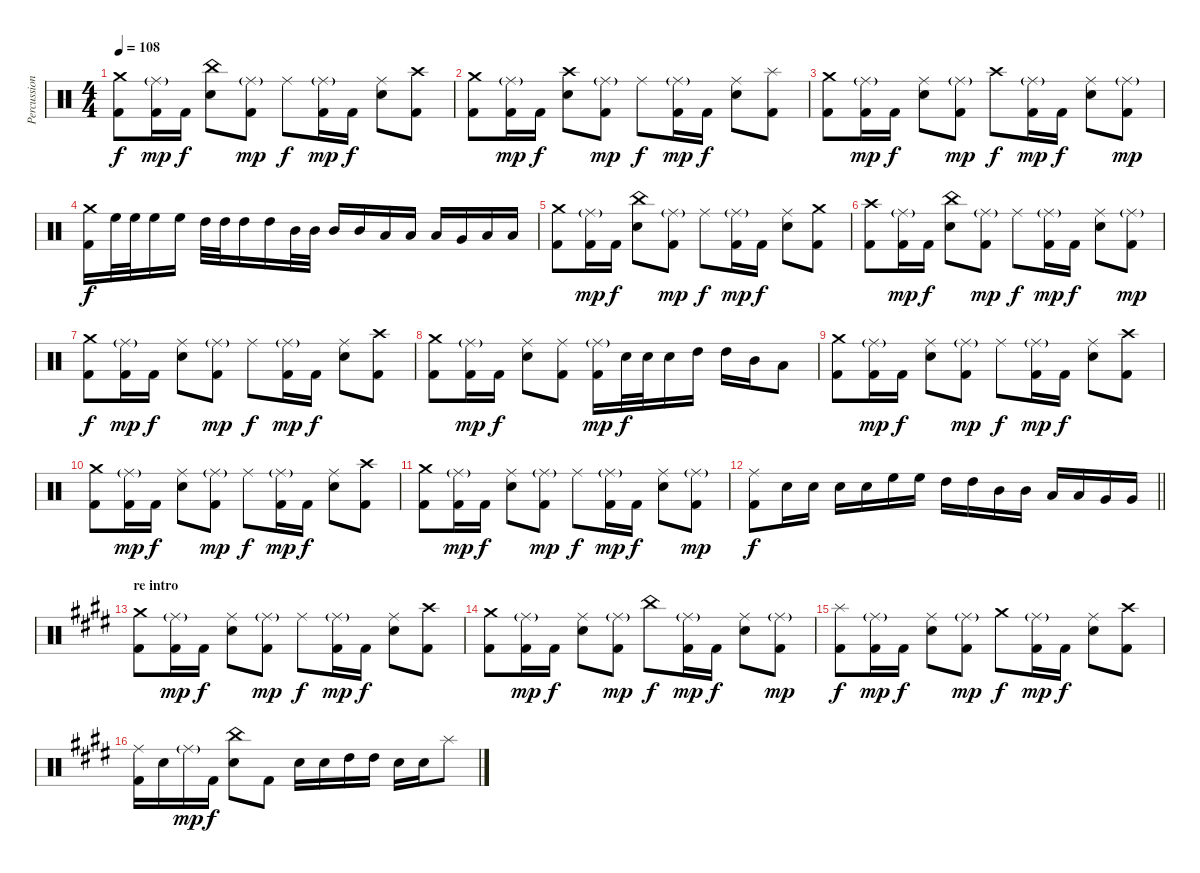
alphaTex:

\track ("Percussion" "Percussion") {instrument percussion}
\staff {score}
\articulation defaults
\ts (4 4)
\tempo 108
\clef neutral
\ks c
("Crash medium (hit)" "Kick (hit) 2").8{dy f} ("Ride (middle)"{g} "Kick (hit) 2").16{dy mp} "Kick (hit) 2".16{dy f} ("China (hit)" "Electric Snare (hit)").8 ("Ride (middle)"{g} "Kick (hit) 2").8{dy mp} "Ride (middle)".8{dy f} ("Ride (middle)"{g} "Kick (hit) 2").16{dy mp} "Kick (hit) 2".16{dy f} ("Ride (middle)" "Electric Snare (hit)").8 ("Crash high (hit)" "Kick (hit) 2").8 |
("Crash medium (hit)" "Kick (hit) 2").8 ("Ride (middle)"{g} "Kick (hit) 2").16{dy mp} "Kick (hit) 2".16{dy f} ("Crash high (hit)" "Electric Snare (hit)").8 ("Ride (middle)"{g} "Kick (hit) 2").8{dy mp} "Ride (middle)".8{dy f} ("Ride (middle)"{g} "Kick (hit) 2").16{dy mp} "Kick (hit) 2".16{dy f} ("Ride (middle)" "Electric Snare (hit)").8 ("Splash (hit)" "Kick (hit) 2").8 |
("Crash medium (hit)" "Kick (hit) 2").8 ("Ride (middle)"{g} "Kick (hit) 2").16{dy mp} "Kick (hit) 2".16{dy f} ("Ride (middle)" "Electric Snare (hit)").8 ("Ride (middle)"{g} "Kick (hit) 2").8{dy mp} "Crash high (hit)".8{dy f} ("Ride (middle)"{g} "Kick (hit) 2").16{dy mp} "Kick (hit) 2".16{dy f} ("Ride (middle)" "Electric Snare (hit)").8 ("Ride (middle)"{g} "Kick (hit) 2").8{dy mp} |
("Crash medium (hit)" "Kick (hit) 2").16{dy f} "High Floor Tom (hit)".32 "High Floor Tom (hit)".32 "High Floor Tom (hit)".16 "High Floor Tom (hit)".16 "High Tom (hit)".32 "High Tom (hit)".32 "High Tom (hit)".16 "High Tom (hit)".16 "Mid Tom (hit)".32 "Mid Tom (hit)".32 "Mid Tom (hit)".16 "Mid Tom (hit)".16 "Low Tom (hit)".16 "Low Tom (hit)".16 "Low Tom (hit)".16 "Very Low Tom (hit)".16 "Low Floor Tom (hit)".16 "Low Floor Tom (hit)".16 |
("Crash medium (hit)" "Kick (hit) 2").8 ("Ride (middle)"{g} "Kick (hit) 2").16{dy mp} "Kick (hit) 2".16{dy f} ("China (hit)" "Electric Snare (hit)").8 ("Ride (middle)"{g} "Kick (hit) 2").8{dy mp} "Ride (middle)".8{dy f} ("Ride (middle)"{g} "Kick (hit) 2").16{dy mp} "Kick (hit) 2".16{dy f} ("Ride (middle)" "Electric Snare (hit)").8 ("Crash medium (hit)" "Kick (hit) 2").8 |
("Crash high (hit)" "Kick (hit) 2").8 ("Ride (middle)"{g} "Kick (hit) 2").16{dy mp} "Kick (hit) 2".16{dy f} ("China (hit)" "Electric Snare (hit)").8 ("Ride (middle)"{g} "Kick (hit) 2").8{dy mp} "Ride (middle)".8{dy f} ("Ride (middle)"{g} "Kick (hit) 2").16{dy mp} "Kick (hit) 2".16{dy f} ("Ride (middle)" "Electric Snare (hit)").8 ("Ride (middle)"{g} "Kick (hit) 2").8{dy mp} |
("Crash medium (hit)" "Kick (hit) 2").8{dy f} ("Ride (middle)"{g} "Kick (hit) 2").16{dy mp} "Kick (hit) 2".16{dy f} ("Ride (middle)" "Electric Snare (hit)").8 ("Ride (middle)"{g} "Kick (hit) 2").8{dy mp} "Ride (middle)".8{dy f} ("Ride (middle)"{g} "Kick (hit) 2").16{dy mp} "Kick (hit) 2".16{dy f} ("Ride (middle)" "Electric Snare (hit)").8 ("Crash high (hit)" "Kick (hit) 2").8 |
("Crash medium (hit)" "Kick (hit) 2").8 ("Ride (middle)"{g} "Kick (hit) 2").16{dy mp} "Kick (hit) 2".16{dy f} ("Ride (middle)" "Electric Snare (hit)").8 ("Ride (middle)" "Kick (hit) 2").8 ("Ride (middle)"{g} "Kick (hit) 2").16{dy mp} "Electric Snare (hit)".32{dy f} "Electric Snare (hit)".32 "Electric Snare (hit)".16 "High Tom (hit)".16 "High Tom (hit)".16 "Mid Tom (hit)".16 "Low Tom (hit)".8 |
("Crash medium (hit)" "Kick (hit) 2").8 ("Ride (middle)"{g} "Kick (hit) 2").16{dy mp} "Kick (hit) 2".16{dy f} ("Ride (middle)" "Electric Snare (hit)").8 ("Ride (middle)"{g} "Kick (hit) 2").8{dy mp} "Ride (middle)".8{dy f} ("Ride (middle)"{g} "Kick (hit) 2").16{dy mp} "Kick (hit) 2".16{dy f} ("Ride (middle)" "Electric Snare (hit)").8 ("Crash high (hit)" "Kick (hit) 2").8 |
("Crash medium (hit)" "Kick (hit) 2").8 ("Ride (middle)"{g} "Kick (hit) 2").16{dy mp} "Kick (hit) 2".16{dy f} ("Ride (middle)" "Electric Snare (hit)").8 ("Ride (middle)"{g} "Kick (hit) 2").8{dy mp} "Ride (middle)".8{dy f} ("Ride (middle)"{g} "Kick (hit) 2").16{dy mp} "Kick (hit) 2".16{dy f} ("Ride (middle)" "Electric Snare (hit)").8 ("Crash high (hit)" "Kick (hit) 2").8 |
("Crash medium (hit)" "Kick (hit) 2").8 ("Ride (middle)"{g} "Kick (hit) 2").16{dy mp} "Kick (hit) 2".16{dy f} ("Ride (middle)" "Electric Snare (hit)").8 ("Ride (middle)"{g} "Kick (hit) 2").8{dy mp} "Ride (middle)".8{dy f} ("Ride (middle)"{g} "Kick (hit) 2").16{dy mp} "Kick (hit) 2".16{dy f} ("Ride (middle)" "Electric Snare (hit)").8 ("Ride (middle)"{g} "Kick (hit) 2").8{dy mp} |
\barLineRight lightlight
("Ride (middle)" "Kick (hit) 2").8{dy f} "Electric Snare (hit)".16 "Electric Snare (hit)".16 "Electric Snare (hit)".16 "Electric Snare (hit)".16 "High Floor Tom (hit)".16 "High Floor Tom (hit)".16 "High Tom (hit)".16 "High Tom (hit)".16 "Mid Tom (hit)".16 "Mid Tom (hit)".16 "Low Tom (hit)".16 "Low Tom (hit)".16 "Very Low Tom (hit)".16 "Very Low Tom (hit)".16 |
\section ("" "re intro")
\ks e
("Crash medium (hit)" "Kick (hit) 2").8 ("Ride (middle)"{g} "Kick (hit) 2").16{dy mp} "Kick (hit) 2".16{dy f} ("Ride (middle)" "Electric Snare (hit)").8 ("Ride (middle)"{g} "Kick (hit) 2").8{dy mp} "Ride (middle)".8{dy f} ("Ride (middle)"{g} "Kick (hit) 2").16{dy mp} "Kick (hit) 2".16{dy f} ("Ride (middle)" "Electric Snare (hit)").8 ("Crash high (hit)" "Kick (hit) 2").8 |
("Crash medium (hit)" "Kick (hit) 2").8 ("Ride (middle)"{g} "Kick (hit) 2").16{dy mp} "Kick (hit) 2".16{dy f} ("Ride (middle)" "Electric Snare (hit)").8 ("Ride (middle)"{g} "Kick (hit) 2").8{dy mp} "China (hit)".8{dy f} ("Ride (middle)"{g} "Kick (hit) 2").16{dy mp} "Kick (hit) 2".16{dy f} ("Ride (middle)" "Electric Snare (hit)").8 ("Ride (middle)"{g} "Kick (hit) 2").8{dy mp} |
("Splash (hit)" "Kick (hit) 2").8{dy f} ("Ride (middle)"{g} "Kick (hit) 2").16{dy mp} "Kick (hit) 2".16{dy f} ("Ride (middle)" "Electric Snare (hit)").8 ("Ride (middle)"{g} "Kick (hit) 2").8{dy mp} "Crash medium (hit)".8{dy f} ("Ride (middle)"{g} "Kick (hit) 2").16{dy mp} "Kick (hit) 2".16{dy f} ("Ride (middle)" "Electric Snare (hit)").8 ("Crash high (hit)" "Kick (hit) 2").8 |
("Ride (middle)" "Kick (hit) 2").16 "Electric Snare (hit)".16 "Ride (middle)"{g}.16{dy mp} "Kick (hit) 2".16{dy f} ("China (hit)" "Electric Snare (hit)").8 "Kick (hit) 2".8 "Electric Snare (hit)".16 "Electric Snare (hit)".16 "High Tom (hit)".16 "High Tom (hit)".16 "Electric Snare (hit)".16 "Electric Snare (hit)".16 "Splash (hit)".8
